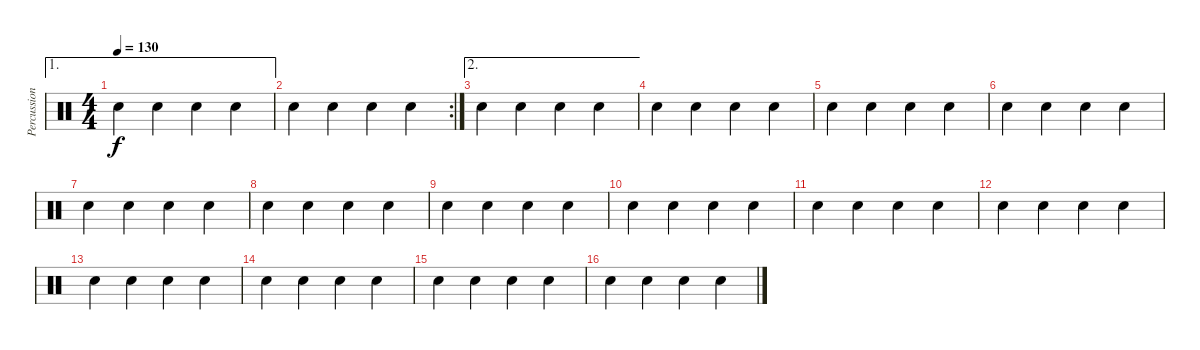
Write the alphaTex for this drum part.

\track ("Percussions" "Percussion") {instrument percussion}
\staff {score}
\articulation defaults
\ae 1
\ts (4 4)
\tempo 130
\clef neutral
\ks c "Hand Clap (hit)".4{dy f} "Hand Clap (hit)".4 "Hand Clap (hit)".4 "Hand Clap (hit)".4
|
\rc 2 "Hand Clap (hit)".4 "Hand Clap (hit)".4 "Hand Clap (hit)".4 "Hand Clap (hit)".4
|
\ae 2 "Hand Clap (hit)".4 "Hand Clap (hit)".4 "Hand Clap (hit)".4 "Hand Clap (hit)".4
|
"Hand Clap (hit)".4 "Hand Clap (hit)".4 "Hand Clap (hit)".4 "Hand Clap (hit)".4 |
"Hand Clap (hit)".4 "Hand Clap (hit)".4 "Hand Clap (hit)".4 "Hand Clap (hit)".4 |
"Hand Clap (hit)".4 "Hand Clap (hit)".4 "Hand Clap (hit)".4 "Hand Clap (hit)".4 |
"Hand Clap (hit)".4 "Hand Clap (hit)".4 "Hand Clap (hit)".4 "Hand Clap (hit)".4 |
"Hand Clap (hit)".4 "Hand Clap (hit)".4 "Hand Clap (hit)".4 "Hand Clap (hit)".4 |
"Hand Clap (hit)".4 "Hand Clap (hit)".4 "Hand Clap (hit)".4 "Hand Clap (hit)".4 |
"Hand Clap (hit)".4 "Hand Clap (hit)".4 "Hand Clap (hit)".4 "Hand Clap (hit)".4 |
"Hand Clap (hit)".4 "Hand Clap (hit)".4 "Hand Clap (hit)".4 "Hand Clap (hit)".4 |
"Hand Clap (hit)".4 "Hand Clap (hit)".4 "Hand Clap (hit)".4 "Hand Clap (hit)".4 |
"Hand Clap (hit)".4 "Hand Clap (hit)".4 "Hand Clap (hit)".4 "Hand Clap (hit)".4 |
"Hand Clap (hit)".4 "Hand Clap (hit)".4 "Hand Clap (hit)".4 "Hand Clap (hit)".4 |
"Hand Clap (hit)".4 "Hand Clap (hit)".4 "Hand Clap (hit)".4 "Hand Clap (hit)".4 |
"Hand Clap (hit)".4 "Hand Clap (hit)".4 "Hand Clap (hit)".4 "Hand Clap (hit)".4
